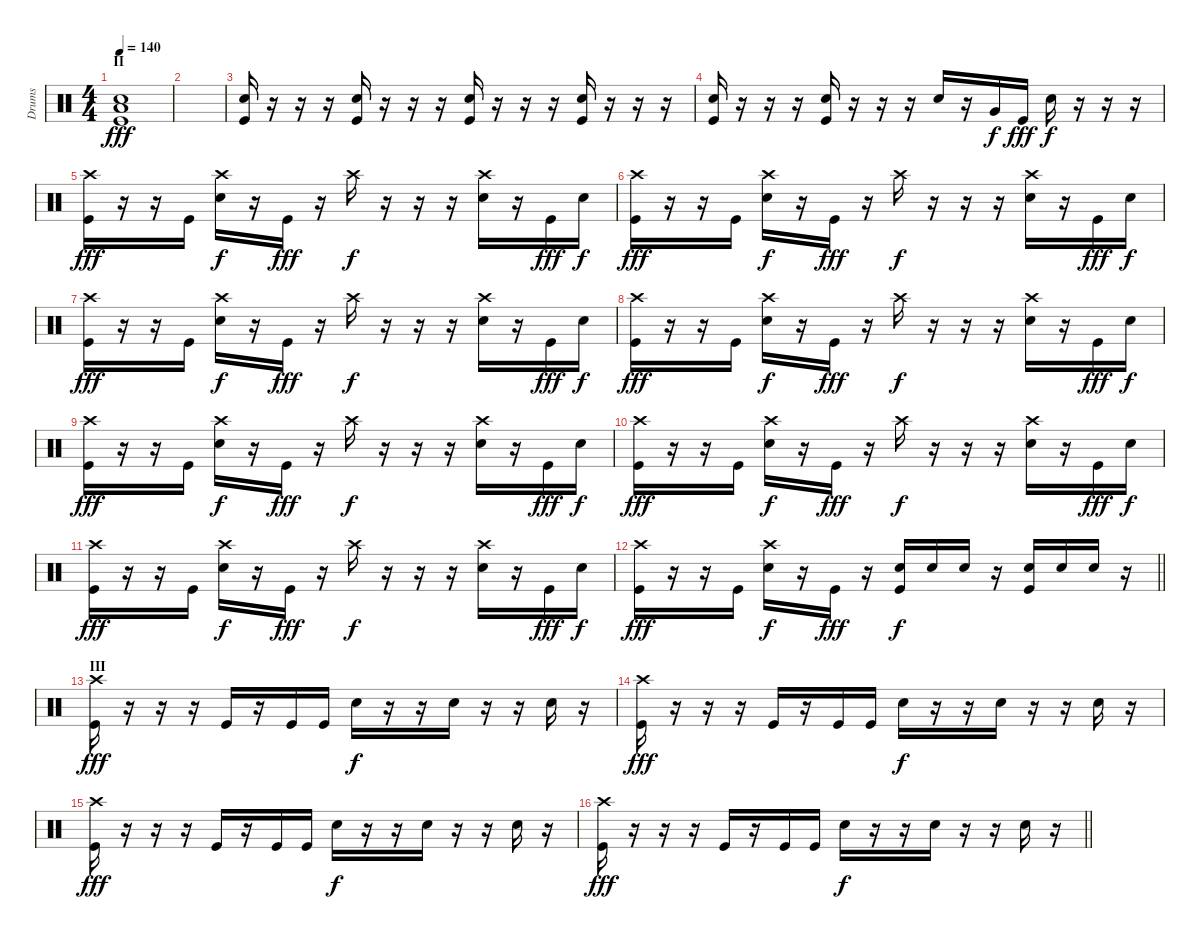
\track ("Drums" "Drums") {instrument percussion}
\staff {score}
\articulation defaults
\ts (4 4)
\section ("" "II")
\tempo 140
\clef neutral
\ks c
("Electric Snare (hit)" "Low Floor Tom (hit)" "Kick (hit)").1{dy fff} |
|
("Electric Snare (hit)" "Kick (hit)").16 r.16 r.16 r.16 ("Electric Snare (hit)" "Kick (hit)").16 r.16 r.16 r.16 ("Electric Snare (hit)" "Kick (hit)").16 r.16 r.16 r.16 ("Electric Snare (hit)" "Kick (hit)").16 r.16 r.16 r.16 |
("Electric Snare (hit)" "Kick (hit)").16 r.16 r.16 r.16 ("Electric Snare (hit)" "Kick (hit)").16 r.16 r.16 r.16 "Electric Snare (hit)".16 r.16 "Very Low Tom (hit)".16{dy f} "Kick (hit)".16{dy fff} "Electric Snare (hit)".16{dy f} r.16 r.16 r.16 |
("Crash high (hit)" "Kick (hit)").16{dy fff} r.16 r.16 "Kick (hit)".16 ("Crash high (hit)" "Electric Snare (hit)").16{dy f} r.16 "Kick (hit)".16{dy fff} r.16 "Crash high (hit)".16{dy f} r.16 r.16 r.16 ("Crash high (hit)" "Electric Snare (hit)").16 r.16 "Kick (hit)".16{dy fff} "Electric Snare (hit)".16{dy f} |
("Crash high (hit)" "Kick (hit)").16{dy fff} r.16 r.16 "Kick (hit)".16 ("Crash high (hit)" "Electric Snare (hit)").16{dy f} r.16 "Kick (hit)".16{dy fff} r.16 "Crash high (hit)".16{dy f} r.16 r.16 r.16 ("Crash high (hit)" "Electric Snare (hit)").16 r.16 "Kick (hit)".16{dy fff} "Electric Snare (hit)".16{dy f} |
("Crash high (hit)" "Kick (hit)").16{dy fff} r.16 r.16 "Kick (hit)".16 ("Crash high (hit)" "Electric Snare (hit)").16{dy f} r.16 "Kick (hit)".16{dy fff} r.16 "Crash high (hit)".16{dy f} r.16 r.16 r.16 ("Crash high (hit)" "Electric Snare (hit)").16 r.16 "Kick (hit)".16{dy fff} "Electric Snare (hit)".16{dy f} |
("Crash high (hit)" "Kick (hit)").16{dy fff} r.16 r.16 "Kick (hit)".16 ("Crash high (hit)" "Electric Snare (hit)").16{dy f} r.16 "Kick (hit)".16{dy fff} r.16 "Crash high (hit)".16{dy f} r.16 r.16 r.16 ("Crash high (hit)" "Electric Snare (hit)").16 r.16 "Kick (hit)".16{dy fff} "Electric Snare (hit)".16{dy f} |
("Crash high (hit)" "Kick (hit)").16{dy fff} r.16 r.16 "Kick (hit)".16 ("Crash high (hit)" "Electric Snare (hit)").16{dy f} r.16 "Kick (hit)".16{dy fff} r.16 "Crash high (hit)".16{dy f} r.16 r.16 r.16 ("Crash high (hit)" "Electric Snare (hit)").16 r.16 "Kick (hit)".16{dy fff} "Electric Snare (hit)".16{dy f} |
("Crash high (hit)" "Kick (hit)").16{dy fff} r.16 r.16 "Kick (hit)".16 ("Crash high (hit)" "Electric Snare (hit)").16{dy f} r.16 "Kick (hit)".16{dy fff} r.16 "Crash high (hit)".16{dy f} r.16 r.16 r.16 ("Crash high (hit)" "Electric Snare (hit)").16 r.16 "Kick (hit)".16{dy fff} "Electric Snare (hit)".16{dy f} |
("Crash high (hit)" "Kick (hit)").16{dy fff} r.16 r.16 "Kick (hit)".16 ("Crash high (hit)" "Electric Snare (hit)").16{dy f} r.16 "Kick (hit)".16{dy fff} r.16 "Crash high (hit)".16{dy f} r.16 r.16 r.16 ("Crash high (hit)" "Electric Snare (hit)").16 r.16 "Kick (hit)".16{dy fff} "Electric Snare (hit)".16{dy f} |
\barLineRight lightlight
("Crash high (hit)" "Kick (hit)").16{dy fff} r.16 r.16 "Kick (hit)".16 ("Crash high (hit)" "Electric Snare (hit)").16{dy f} r.16 "Kick (hit)".16{dy fff} r.16 ("Electric Snare (hit)" "Kick (hit)").16{dy f} "Electric Snare (hit)".16 "Electric Snare (hit)".16 r.16 ("Electric Snare (hit)" "Kick (hit)").16 "Electric Snare (hit)".16 "Electric Snare (hit)".16 r.16 |
\section ("" "III")
("Crash high (hit)" "Kick (hit)").16{dy fff} r.16 r.16 r.16 "Kick (hit)".16 r.16 "Kick (hit)".16 "Kick (hit)".16 "Electric Snare (hit)".16{dy f} r.16 r.16 "Electric Snare (hit)".16 r.16 r.16 "Electric Snare (hit)".16 r.16 |
("Crash high (hit)" "Kick (hit)").16{dy fff} r.16 r.16 r.16 "Kick (hit)".16 r.16 "Kick (hit)".16 "Kick (hit)".16 "Electric Snare (hit)".16{dy f} r.16 r.16 "Electric Snare (hit)".16 r.16 r.16 "Electric Snare (hit)".16 r.16 |
("Crash high (hit)" "Kick (hit)").16{dy fff} r.16 r.16 r.16 "Kick (hit)".16 r.16 "Kick (hit)".16 "Kick (hit)".16 "Electric Snare (hit)".16{dy f} r.16 r.16 "Electric Snare (hit)".16 r.16 r.16 "Electric Snare (hit)".16 r.16 |
\barLineRight lightlight
("Crash high (hit)" "Kick (hit)").16{dy fff} r.16 r.16 r.16 "Kick (hit)".16 r.16 "Kick (hit)".16 "Kick (hit)".16 "Electric Snare (hit)".16{dy f} r.16 r.16 "Electric Snare (hit)".16 r.16 r.16 "Electric Snare (hit)".16 r.16
